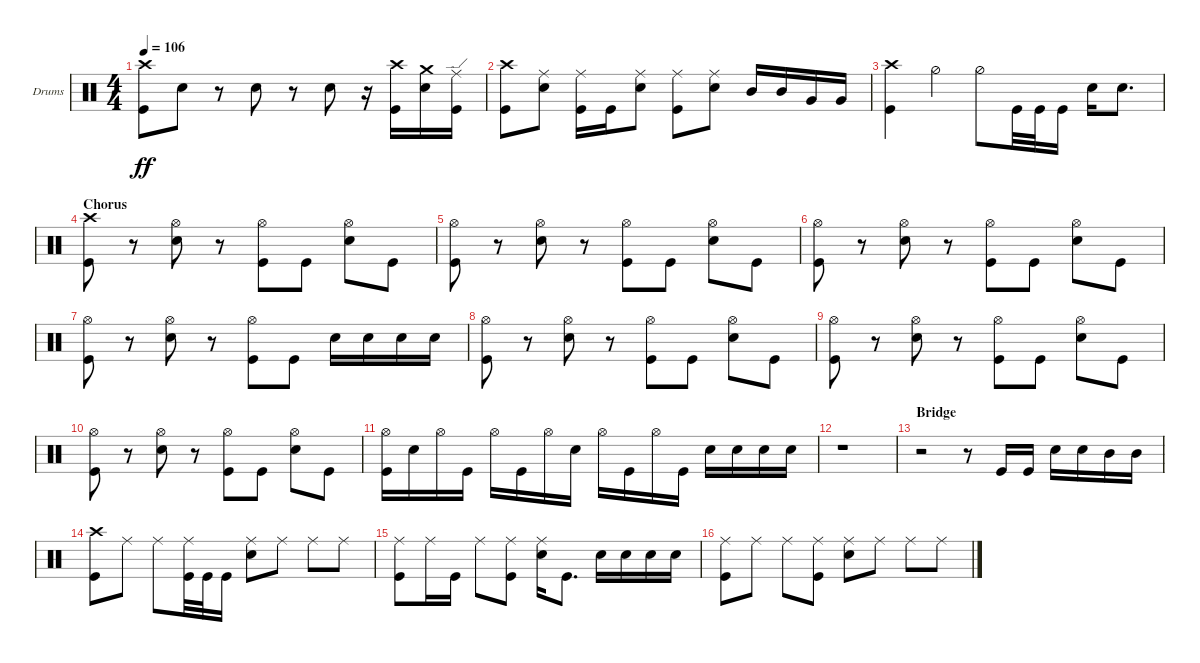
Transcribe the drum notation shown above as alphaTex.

\defaultSystemsLayout 4
\bracketExtendMode groupsimilarinstruments
\firstSystemTrackNameOrientation horizontal
\otherSystemsTrackNameOrientation horizontal
\track ("Drumkit" "Drums") {instrument percussion}
\staff {score}
\articulation defaults
\ts (4 4)
\tempo 106
\clef neutral
\scale
0.333333
\ks c
("Kick (hit)" "Crash high (hit)").8{dy ff} "Snare (hit) 2".8 r.8 "Snare (hit) 2".8 r.8 "Snare (hit) 2".8 r.16 ("Kick (hit)" "Crash high (hit)").16 ("Crash medium (hit)" "Snare (hit) 2").16 ("Kick (hit)" "Ride (edge)").16 |
\scale
0.333333 ("Kick (hit)" "Crash high (hit)").8 ("Snare (hit) 2" "Ride (middle)").8 ("Kick (hit)" "Ride (middle)").16 "Kick (hit)".16 ("Snare (hit) 2" "Ride (middle)").8 ("Kick (hit)" "Ride (middle)").8 ("Snare (hit) 2" "Ride (middle)").8 "Mid Tom (hit)".16 "Mid Tom (hit)".16 "Very Low Tom (hit)".16 "Very Low Tom (hit)".16 |
\scale
0.333333 ("Kick (hit)" "Crash high (hit)").4 "Hi-Hat (half)".4 "Hi-Hat (half)".8 "Kick (hit)".32 "Kick (hit)".32 "Kick (hit)".16 "Snare (hit) 2".16 "Snare (hit) 2".8{d} |
\section ("" "Chorus")
\scale
0.333333 ("Crash high (hit)" "Kick (hit)").8 r.8 ("Snare (hit) 2" "Hi-Hat (open)").8 r.8 ("Kick (hit)" "Hi-Hat (open)").8 "Kick (hit)".8 ("Snare (hit) 2" "Hi-Hat (open)").8 "Kick (hit)".8 |
\scale
0.333333 ("Kick (hit)" "Hi-Hat (open)").8 r.8 ("Snare (hit) 2" "Hi-Hat (open)").8 r.8 ("Kick (hit)" "Hi-Hat (open)").8 "Kick (hit)".8 ("Snare (hit) 2" "Hi-Hat (open)").8 "Kick (hit)".8 |
\scale
0.333333 ("Kick (hit)" "Hi-Hat (open)").8 r.8 ("Snare (hit) 2" "Hi-Hat (open)").8 r.8 ("Kick (hit)" "Hi-Hat (open)").8 "Kick (hit)".8 ("Snare (hit) 2" "Hi-Hat (open)").8 "Kick (hit)".8 |
\scale
0.333333 ("Kick (hit)" "Hi-Hat (open)").8 r.8 ("Snare (hit) 2" "Hi-Hat (open)").8 r.8 ("Kick (hit)" "Hi-Hat (open)").8 "Kick (hit)".8 "Snare (hit) 2".16 "Snare (hit) 2".16 "Snare (hit) 2".16 "Snare (hit) 2".16 |
\scale
0.333333 ("Kick (hit)" "Hi-Hat (open)").8 r.8 ("Snare (hit) 2" "Hi-Hat (open)").8 r.8 ("Kick (hit)" "Hi-Hat (open)").8 "Kick (hit)".8 ("Snare (hit) 2" "Hi-Hat (open)").8 "Kick (hit)".8 |
\scale
0.333333 ("Kick (hit)" "Hi-Hat (open)").8 r.8 ("Snare (hit) 2" "Hi-Hat (open)").8 r.8 ("Kick (hit)" "Hi-Hat (open)").8 "Kick (hit)".8 ("Snare (hit) 2" "Hi-Hat (open)").8 "Kick (hit)".8 |
\scale
0.333333 ("Kick (hit)" "Hi-Hat (open)").8 r.8 ("Snare (hit) 2" "Hi-Hat (open)").8 r.8 ("Kick (hit)" "Hi-Hat (open)").8 "Kick (hit)".8 ("Snare (hit) 2" "Hi-Hat (open)").8 "Kick (hit)".8 |
\scale
0.333333 ("Kick (hit)" "Hi-Hat (open)").16 "Snare (hit) 2".16 "Hi-Hat (open)".16 "Kick (hit)".16 "Hi-Hat (open)".16 "Kick (hit)".16 "Hi-Hat (open)".16 "Snare (hit) 2".16 "Hi-Hat (open)".16 "Kick (hit)".16 "Hi-Hat (open)".16 "Kick (hit)".16 "Snare (hit) 2".16 "Snare (hit) 2".16 "Snare (hit) 2".16 "Snare (hit) 2".16 |
\scale
0.333333 r.1 |
\section ("" "Bridge")
\scale
0.333333 r.2 r.8 "Kick (hit)".16 "Kick (hit)".16 "Snare (hit) 2".16 "Snare (hit) 2".16 "Mid Tom (hit)".16 "Mid Tom (hit)".16 |
\scale
0.333333 ("Kick (hit)" "Crash high (hit)").8 "Ride (middle)".8 "Ride (middle)".8 ("Ride (middle)" "Kick (hit)").32 "Kick (hit)".32 "Kick (hit)".16 ("Snare (hit) 2" "Ride (middle)").8 "Ride (middle)".8 "Ride (middle)".8 "Ride (middle)".8 |
\scale
0.333333 ("Kick (hit)" "Ride (middle)").8 "Ride (middle)".16 "Kick (hit)".16 "Ride (middle)".8 ("Kick (hit)" "Ride (middle)").8 ("Snare (hit) 2" "Ride (middle)").16 "Kick (hit)".8{d} "Snare (hit) 2".16 "Snare (hit) 2".16 "Snare (hit) 2".16 "Snare (hit) 2".16 |
\scale
0.333333 ("Kick (hit)" "Ride (middle)").8 "Ride (middle)".8 "Ride (middle)".8 ("Ride (middle)" "Kick (hit)").8 ("Snare (hit) 2" "Ride (middle)").8 "Ride (middle)".8 "Ride (middle)".8 "Ride (middle)".8
